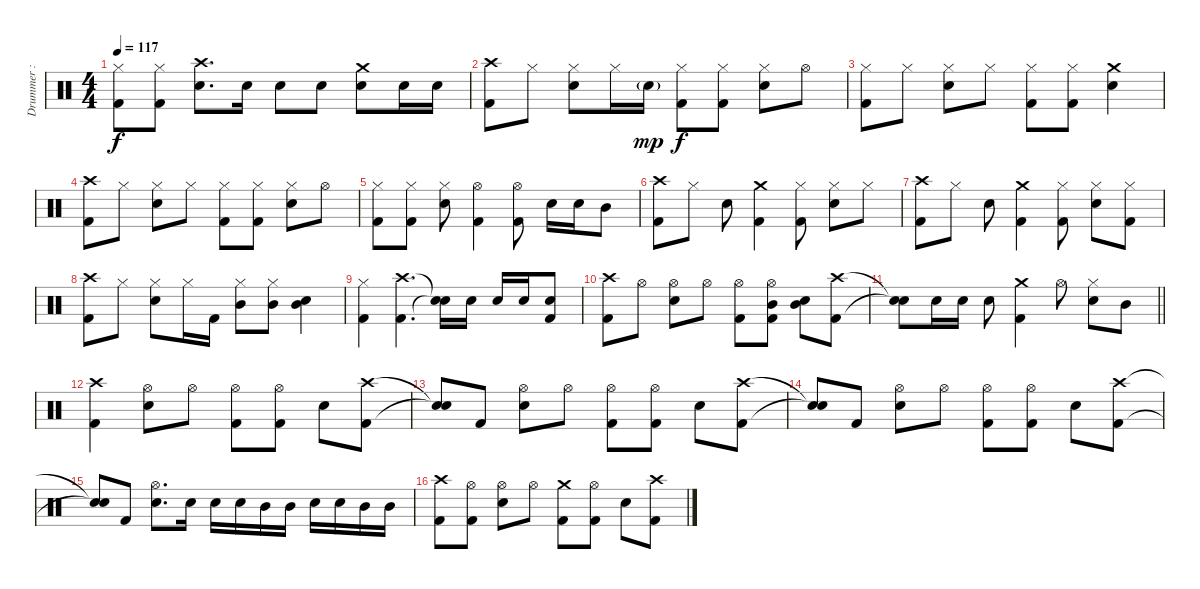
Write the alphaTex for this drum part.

\track ("Drummer : Tainaka Ritsu - San" "Drummer : ") {instrument percussion}
\staff {score}
\articulation defaults
\ts (4 4)
\tempo 117
\clef neutral
\ks c
("Hi-Hat (closed)" "Kick (hit) 2").8{dy f} ("Hi-Hat (closed)" "Kick (hit) 2").8 ("Crash high (hit)" "Snare (hit) 2").8{d} "Snare (hit) 2".16 "Snare (hit) 2".8 "Snare (hit) 2".8 ("Crash medium (hit)" "Snare (hit) 2").8 "Snare (hit) 2".16 "Snare (hit) 2".16 |
("Crash high (hit)" "Kick (hit) 2").8 "Hi-Hat (closed)".8 ("Hi-Hat (closed)" "Snare (hit) 2").8 "Hi-Hat (closed)".16 "Snare (hit) 2"{g}.16{dy mp} ("Hi-Hat (closed)" "Kick (hit) 2").8{dy f} ("Hi-Hat (closed)" "Kick (hit) 2").8 ("Hi-Hat (closed)" "Snare (hit) 2").8 "Hi-Hat (open)".8 |
("Hi-Hat (closed)" "Kick (hit) 2").8 "Hi-Hat (closed)".8 ("Hi-Hat (closed)" "Snare (hit) 2").8 "Hi-Hat (closed)".8 ("Hi-Hat (closed)" "Kick (hit) 2").8 ("Hi-Hat (closed)" "Kick (hit) 2").8 ("Crash medium (hit)" "Snare (hit) 2").4 |
("Crash high (hit)" "Kick (hit) 2").8 "Hi-Hat (closed)".8 ("Hi-Hat (closed)" "Snare (hit) 2").8 "Hi-Hat (closed)".8 ("Hi-Hat (closed)" "Kick (hit) 2").8 ("Hi-Hat (closed)" "Kick (hit) 2").8 ("Hi-Hat (closed)" "Snare (hit) 2").8 "Hi-Hat (open)".8 |
("Hi-Hat (closed)" "Kick (hit) 2").8 ("Hi-Hat (closed)" "Kick (hit) 2").8 ("Hi-Hat (closed)" "Snare (hit) 2").8 ("Hi-Hat (open)" "Kick (hit) 2").4 ("Hi-Hat (open)" "Kick (hit) 2").8 "Snare (hit) 2".16 "Snare (hit) 2".16 "Mid Tom (hit)".8 |
("Crash high (hit)" "Kick (hit) 2").8 "Hi-Hat (closed)".8 "Snare (hit) 2".8 ("Crash medium (hit)" "Kick (hit) 2").4 ("Hi-Hat (closed)" "Kick (hit) 2").8 ("Hi-Hat (closed)" "Snare (hit) 2").8 "Hi-Hat (closed)".8 |
("Crash high (hit)" "Kick (hit) 2").8 "Hi-Hat (closed)".8 "Snare (hit) 2".8 ("Crash medium (hit)" "Kick (hit) 2").4 ("Hi-Hat (closed)" "Kick (hit) 2").8 ("Hi-Hat (closed)" "Snare (hit) 2").8 ("Hi-Hat (closed)" "Kick (hit) 2").8 |
("Crash high (hit)" "Kick (hit) 2").8 "Hi-Hat (closed)".8 ("Hi-Hat (closed)" "Snare (hit) 2").8 "Hi-Hat (closed)".16 "Kick (hit) 2".16 ("Mid Tom (hit)" "Hi-Hat (closed)").8 ("Mid Tom (hit)" "Hi-Hat (closed)").8 ("Mid Tom (hit)" "Snare (hit) 2").4 |
("Hi-Hat (closed)" "Kick (hit) 2").4 ("Crash high (hit)" "Kick (hit) 2").4{d} ("Snare (hit)"{t} "Snare (hit)"{t}).16 "Snare (hit) 2".16 "Snare (hit) 2".16 "Snare (hit) 2".16 ("Snare (hit) 2" "Kick (hit) 2").8 |
("Crash high (hit)" "Kick (hit) 2").8 "Hi-Hat (open)".8 ("Hi-Hat (open)" "Snare (hit) 2").8 "Hi-Hat (open)".8 ("Hi-Hat (open)" "Kick (hit) 2").8 ("Mid Tom (hit)" "Hi-Hat (open)" "Kick (hit) 2").8 ("Mid Tom (hit)" "Snare (hit) 2").8 ("Crash high (hit)" "Kick (hit) 2").8 |
\barLineRight lightlight
("Snare (hit)"{t} "Snare (hit)"{t}).8 "Snare (hit) 2".16 "Snare (hit) 2".16 "Snare (hit) 2".8 ("Crash medium (hit)" "Kick (hit) 2").4 "Hi-Hat (open)".8 ("Hi-Hat (closed)" "Snare (hit) 2").8 "Mid Tom (hit)".8 |
("Crash high (hit)" "Kick (hit) 2").4 ("Hi-Hat (open)" "Snare (hit) 2").8 "Hi-Hat (open)".8 ("Hi-Hat (open)" "Kick (hit) 2").8 ("Hi-Hat (open)" "Kick (hit) 2").8 "Snare (hit) 2".8 ("Crash high (hit)" "Kick (hit) 2").8 |
("Snare (hit)"{t} "Snare (hit)"{t}).8 "Kick (hit) 2".8 ("Hi-Hat (open)" "Snare (hit) 2").8 "Hi-Hat (open)".8 ("Hi-Hat (open)" "Kick (hit) 2").8 ("Hi-Hat (open)" "Kick (hit) 2").8 "Snare (hit) 2".8 ("Crash high (hit)" "Kick (hit) 2").8 |
("Snare (hit)"{t} "Snare (hit)"{t}).8 "Kick (hit) 2".8 ("Hi-Hat (open)" "Snare (hit) 2").8 "Hi-Hat (open)".8 ("Hi-Hat (open)" "Kick (hit) 2").8 ("Hi-Hat (open)" "Kick (hit) 2").8 "Snare (hit) 2".8 ("Crash high (hit)" "Kick (hit) 2").8 |
("Snare (hit)"{t} "Snare (hit)"{t}).8 "Kick (hit) 2".8 ("Hi-Hat (open)" "Snare (hit) 2").8{d} "Snare (hit) 2".16 "Snare (hit) 2".16 "Snare (hit) 2".16 "Mid Tom (hit)".16 "Mid Tom (hit)".16 "Snare (hit) 2".16 "Snare (hit) 2".16 "Mid Tom (hit)".16 "Mid Tom (hit)".16 |
("Crash high (hit)" "Kick (hit) 2").8 ("Hi-Hat (open)" "Kick (hit) 2").8 ("Hi-Hat (open)" "Snare (hit) 2").8 "Hi-Hat (open)".8 ("Crash medium (hit)" "Kick (hit) 2").8 ("Hi-Hat (open)" "Kick (hit) 2").8 "Snare (hit) 2".8 ("Crash high (hit)" "Kick (hit) 2").8
